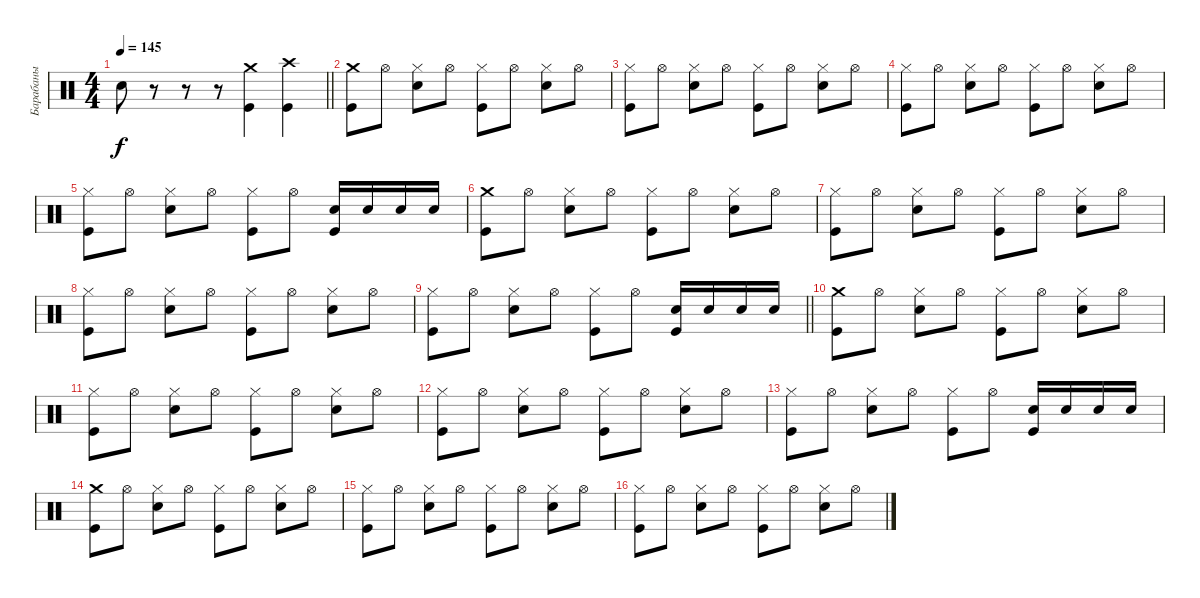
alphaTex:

\track ("Барабаны" "Барабаны") {instrument percussion}
\staff {score}
\articulation defaults
\ts (4 4)
\tempo 145
\clef neutral
\barLineRight lightlight
\ks c "Electric Snare (hit)".8{dy f}
r.8 r.8 r.8 ("Crash medium (hit)" "Kick (hit)").4 ("Crash high (hit)" "Kick (hit)").4 |
("Crash medium (hit)" "Kick (hit)").8 "Hi-Hat (open)".8 ("Hi-Hat (closed)" "Electric Snare (hit)").8 "Hi-Hat (open)".8 ("Hi-Hat (closed)" "Kick (hit)").8 "Hi-Hat (open)".8 ("Hi-Hat (closed)" "Electric Snare (hit)").8 "Hi-Hat (open)".8 |
("Hi-Hat (closed)" "Kick (hit)").8 "Hi-Hat (open)".8 ("Hi-Hat (closed)" "Electric Snare (hit)").8 "Hi-Hat (open)".8 ("Hi-Hat (closed)" "Kick (hit)").8 "Hi-Hat (open)".8 ("Hi-Hat (closed)" "Electric Snare (hit)").8 "Hi-Hat (open)".8 |
("Hi-Hat (closed)" "Kick (hit)").8 "Hi-Hat (open)".8 ("Hi-Hat (closed)" "Electric Snare (hit)").8 "Hi-Hat (open)".8 ("Hi-Hat (closed)" "Kick (hit)").8 "Hi-Hat (open)".8 ("Hi-Hat (closed)" "Electric Snare (hit)").8 "Hi-Hat (open)".8 |
("Hi-Hat (closed)" "Kick (hit)").8 "Hi-Hat (open)".8 ("Hi-Hat (closed)" "Electric Snare (hit)").8 "Hi-Hat (open)".8 ("Hi-Hat (closed)" "Kick (hit)").8 "Hi-Hat (open)".8 ("Electric Snare (hit)" "Kick (hit)").16 "Electric Snare (hit)".16 "Electric Snare (hit)".16 "Electric Snare (hit)".16 |
("Crash medium (hit)" "Kick (hit)").8 "Hi-Hat (open)".8 ("Hi-Hat (closed)" "Electric Snare (hit)").8 "Hi-Hat (open)".8 ("Hi-Hat (closed)" "Kick (hit)").8 "Hi-Hat (open)".8 ("Hi-Hat (closed)" "Electric Snare (hit)").8 "Hi-Hat (open)".8 |
("Hi-Hat (closed)" "Kick (hit)").8 "Hi-Hat (open)".8 ("Hi-Hat (closed)" "Electric Snare (hit)").8 "Hi-Hat (open)".8 ("Hi-Hat (closed)" "Kick (hit)").8 "Hi-Hat (open)".8 ("Hi-Hat (closed)" "Electric Snare (hit)").8 "Hi-Hat (open)".8 |
("Hi-Hat (closed)" "Kick (hit)").8 "Hi-Hat (open)".8 ("Hi-Hat (closed)" "Electric Snare (hit)").8 "Hi-Hat (open)".8 ("Hi-Hat (closed)" "Kick (hit)").8 "Hi-Hat (open)".8 ("Hi-Hat (closed)" "Electric Snare (hit)").8 "Hi-Hat (open)".8 |
\barLineRight lightlight
("Hi-Hat (closed)" "Kick (hit)").8 "Hi-Hat (open)".8 ("Hi-Hat (closed)" "Electric Snare (hit)").8 "Hi-Hat (open)".8 ("Hi-Hat (closed)" "Kick (hit)").8 "Hi-Hat (open)".8 ("Electric Snare (hit)" "Kick (hit)").16 "Electric Snare (hit)".16 "Electric Snare (hit)".16 "Electric Snare (hit)".16 |
("Crash medium (hit)" "Kick (hit)").8 "Hi-Hat (open)".8 ("Hi-Hat (closed)" "Electric Snare (hit)").8 "Hi-Hat (open)".8 ("Hi-Hat (closed)" "Kick (hit)").8 "Hi-Hat (open)".8 ("Hi-Hat (closed)" "Electric Snare (hit)").8 "Hi-Hat (open)".8 |
("Hi-Hat (closed)" "Kick (hit)").8 "Hi-Hat (open)".8 ("Hi-Hat (closed)" "Electric Snare (hit)").8 "Hi-Hat (open)".8 ("Hi-Hat (closed)" "Kick (hit)").8 "Hi-Hat (open)".8 ("Hi-Hat (closed)" "Electric Snare (hit)").8 "Hi-Hat (open)".8 |
("Hi-Hat (closed)" "Kick (hit)").8 "Hi-Hat (open)".8 ("Hi-Hat (closed)" "Electric Snare (hit)").8 "Hi-Hat (open)".8 ("Hi-Hat (closed)" "Kick (hit)").8 "Hi-Hat (open)".8 ("Hi-Hat (closed)" "Electric Snare (hit)").8 "Hi-Hat (open)".8 |
("Hi-Hat (closed)" "Kick (hit)").8 "Hi-Hat (open)".8 ("Hi-Hat (closed)" "Electric Snare (hit)").8 "Hi-Hat (open)".8 ("Hi-Hat (closed)" "Kick (hit)").8 "Hi-Hat (open)".8 ("Electric Snare (hit)" "Kick (hit)").16 "Electric Snare (hit)".16 "Electric Snare (hit)".16 "Electric Snare (hit)".16 |
("Crash medium (hit)" "Kick (hit)").8 "Hi-Hat (open)".8 ("Hi-Hat (closed)" "Electric Snare (hit)").8 "Hi-Hat (open)".8 ("Hi-Hat (closed)" "Kick (hit)").8 "Hi-Hat (open)".8 ("Hi-Hat (closed)" "Electric Snare (hit)").8 "Hi-Hat (open)".8 |
("Hi-Hat (closed)" "Kick (hit)").8 "Hi-Hat (open)".8 ("Hi-Hat (closed)" "Electric Snare (hit)").8 "Hi-Hat (open)".8 ("Hi-Hat (closed)" "Kick (hit)").8 "Hi-Hat (open)".8 ("Hi-Hat (closed)" "Electric Snare (hit)").8 "Hi-Hat (open)".8 |
("Hi-Hat (closed)" "Kick (hit)").8 "Hi-Hat (open)".8 ("Hi-Hat (closed)" "Electric Snare (hit)").8 "Hi-Hat (open)".8 ("Hi-Hat (closed)" "Kick (hit)").8 "Hi-Hat (open)".8 ("Hi-Hat (closed)" "Electric Snare (hit)").8 "Hi-Hat (open)".8
